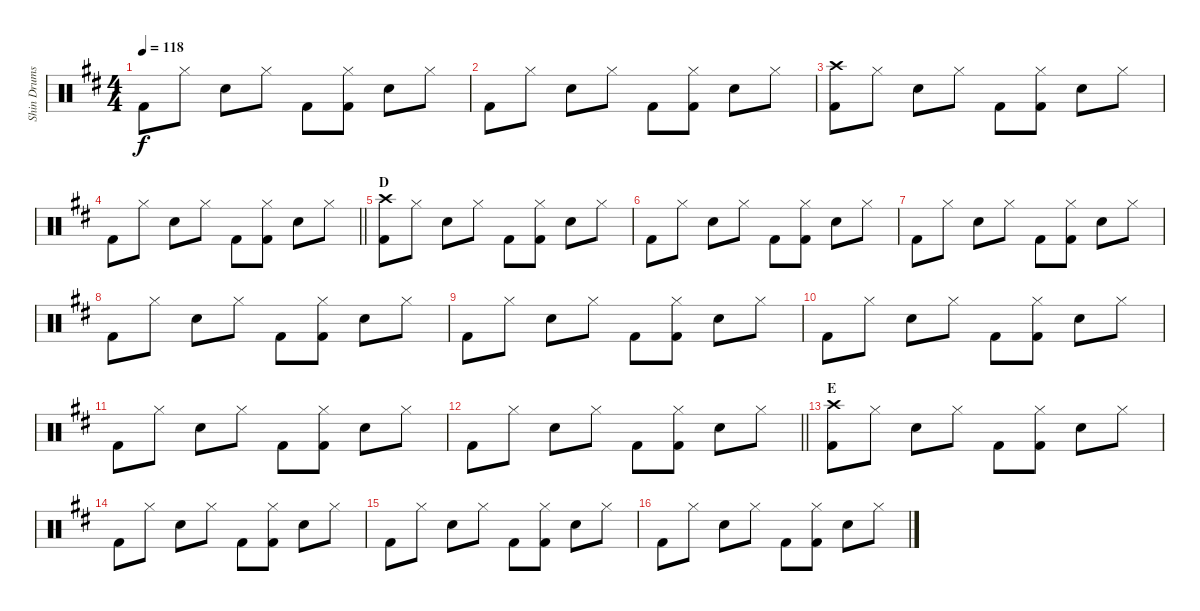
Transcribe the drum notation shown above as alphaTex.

\track ("Shin Drums" "Shin Drums") {instrument percussion}
\staff {score}
\articulation defaults
\ts (4 4)
\tempo 118
\clef neutral
\ks d "Kick (hit) 2".8{dy f} "Hi-Hat (closed)".8 "Snare (hit) 2".8 "Hi-Hat (closed)".8 "Kick (hit) 2".8
("Hi-Hat (closed)" "Kick (hit) 2").8 "Snare (hit) 2".8 "Hi-Hat (closed)".8 |
"Kick (hit) 2".8 "Hi-Hat (closed)".8 "Snare (hit) 2".8 "Hi-Hat (closed)".8 "Kick (hit) 2".8 ("Hi-Hat (closed)" "Kick (hit) 2").8 "Snare (hit) 2".8 "Hi-Hat (closed)".8 |
("Crash high (hit)" "Kick (hit) 2").8 "Hi-Hat (closed)".8 "Snare (hit) 2".8 "Hi-Hat (closed)".8 "Kick (hit) 2".8 ("Hi-Hat (closed)" "Kick (hit) 2").8 "Snare (hit) 2".8 "Hi-Hat (closed)".8 |
\barLineRight lightlight "Kick (hit) 2".8 "Hi-Hat (closed)".8 "Snare (hit) 2".8 "Hi-Hat (closed)".8 "Kick (hit) 2".8
("Hi-Hat (closed)" "Kick (hit) 2").8 "Snare (hit) 2".8 "Hi-Hat (closed)".8 |
\section ("" "D")
("Crash high (hit)" "Kick (hit) 2").8 "Hi-Hat (closed)".8 "Snare (hit) 2".8 "Hi-Hat (closed)".8 "Kick (hit) 2".8 ("Hi-Hat (closed)" "Kick (hit) 2").8 "Snare (hit) 2".8 "Hi-Hat (closed)".8 |
"Kick (hit) 2".8 "Hi-Hat (closed)".8 "Snare (hit) 2".8 "Hi-Hat (closed)".8 "Kick (hit) 2".8 ("Hi-Hat (closed)" "Kick (hit) 2").8 "Snare (hit) 2".8 "Hi-Hat (closed)".8 |
"Kick (hit) 2".8 "Hi-Hat (closed)".8 "Snare (hit) 2".8 "Hi-Hat (closed)".8 "Kick (hit) 2".8 ("Hi-Hat (closed)" "Kick (hit) 2").8 "Snare (hit) 2".8 "Hi-Hat (closed)".8 |
"Kick (hit) 2".8 "Hi-Hat (closed)".8 "Snare (hit) 2".8 "Hi-Hat (closed)".8 "Kick (hit) 2".8 ("Hi-Hat (closed)" "Kick (hit) 2").8 "Snare (hit) 2".8 "Hi-Hat (closed)".8 |
"Kick (hit) 2".8 "Hi-Hat (closed)".8 "Snare (hit) 2".8 "Hi-Hat (closed)".8 "Kick (hit) 2".8 ("Hi-Hat (closed)" "Kick (hit) 2").8 "Snare (hit) 2".8 "Hi-Hat (closed)".8 |
"Kick (hit) 2".8 "Hi-Hat (closed)".8 "Snare (hit) 2".8 "Hi-Hat (closed)".8 "Kick (hit) 2".8 ("Hi-Hat (closed)" "Kick (hit) 2").8 "Snare (hit) 2".8 "Hi-Hat (closed)".8 |
"Kick (hit) 2".8 "Hi-Hat (closed)".8 "Snare (hit) 2".8 "Hi-Hat (closed)".8 "Kick (hit) 2".8 ("Hi-Hat (closed)" "Kick (hit) 2").8 "Snare (hit) 2".8 "Hi-Hat (closed)".8 |
\barLineRight lightlight "Kick (hit) 2".8 "Hi-Hat (closed)".8 "Snare (hit) 2".8 "Hi-Hat (closed)".8 "Kick (hit) 2".8
("Hi-Hat (closed)" "Kick (hit) 2").8 "Snare (hit) 2".8 "Hi-Hat (closed)".8 |
\section ("" "E")
("Crash high (hit)" "Kick (hit) 2").8 "Hi-Hat (closed)".8 "Snare (hit) 2".8 "Hi-Hat (closed)".8 "Kick (hit) 2".8 ("Hi-Hat (closed)" "Kick (hit) 2").8 "Snare (hit) 2".8 "Hi-Hat (closed)".8 |
"Kick (hit) 2".8 "Hi-Hat (closed)".8 "Snare (hit) 2".8 "Hi-Hat (closed)".8 "Kick (hit) 2".8 ("Hi-Hat (closed)" "Kick (hit) 2").8 "Snare (hit) 2".8 "Hi-Hat (closed)".8 |
"Kick (hit) 2".8 "Hi-Hat (closed)".8 "Snare (hit) 2".8 "Hi-Hat (closed)".8 "Kick (hit) 2".8 ("Hi-Hat (closed)" "Kick (hit) 2").8 "Snare (hit) 2".8 "Hi-Hat (closed)".8 |
"Kick (hit) 2".8 "Hi-Hat (closed)".8 "Snare (hit) 2".8 "Hi-Hat (closed)".8 "Kick (hit) 2".8 ("Hi-Hat (closed)" "Kick (hit) 2").8 "Snare (hit) 2".8 "Hi-Hat (closed)".8
